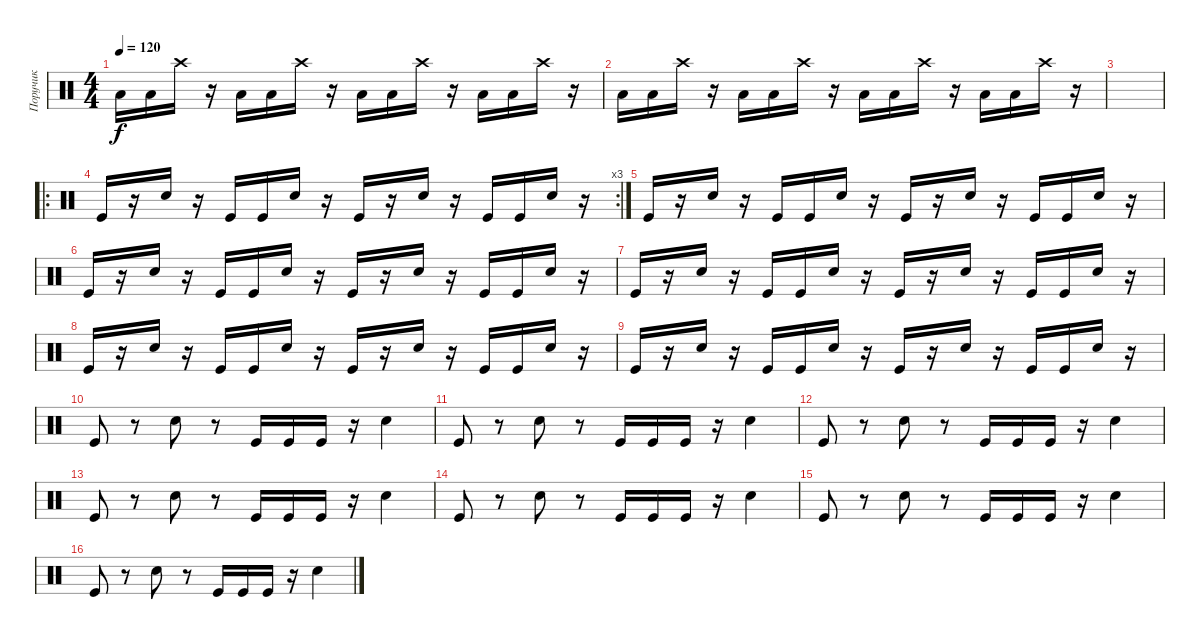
\track ("Поручик" "Поручик") {instrument percussion}
\staff {score}
\articulation defaults
\ts (4 4)
\tempo 120
\clef neutral
\ks c "Low Tom (hit)".16{dy f} "Low Tom (hit)".16 "Crash high (hit)".16
r.16 "Low Tom (hit)".16 "Low Tom (hit)".16 "Crash high (hit)".16 r.16 "Low Tom (hit)".16 "Low Tom (hit)".16 "Crash high (hit)".16 r.16 "Low Tom (hit)".16 "Low Tom (hit)".16 "Crash high (hit)".16 r.16 |
"Low Tom (hit)".16 "Low Tom (hit)".16 "Crash high (hit)".16 r.16 "Low Tom (hit)".16 "Low Tom (hit)".16 "Crash high (hit)".16 r.16 "Low Tom (hit)".16 "Low Tom (hit)".16 "Crash high (hit)".16 r.16 "Low Tom (hit)".16 "Low Tom (hit)".16 "Crash high (hit)".16 r.16 |
|
\ro
\rc 3 "Kick (hit)".16
r.16 "Snare (hit) 2".16 r.16 "Kick (hit)".16 "Kick (hit)".16 "Snare (hit) 2".16 r.16 "Kick (hit)".16 r.16 "Snare (hit) 2".16 r.16 "Kick (hit)".16 "Kick (hit)".16 "Snare (hit) 2".16 r.16 |
"Kick (hit)".16 r.16 "Snare (hit) 2".16 r.16 "Kick (hit)".16 "Kick (hit)".16 "Snare (hit) 2".16 r.16 "Kick (hit)".16 r.16 "Snare (hit) 2".16 r.16 "Kick (hit)".16 "Kick (hit)".16 "Snare (hit) 2".16 r.16 |
"Kick (hit)".16 r.16 "Snare (hit) 2".16 r.16 "Kick (hit)".16 "Kick (hit)".16 "Snare (hit) 2".16 r.16 "Kick (hit)".16 r.16 "Snare (hit) 2".16 r.16 "Kick (hit)".16 "Kick (hit)".16 "Snare (hit) 2".16 r.16 |
"Kick (hit)".16 r.16 "Snare (hit) 2".16 r.16 "Kick (hit)".16 "Kick (hit)".16 "Snare (hit) 2".16 r.16 "Kick (hit)".16 r.16 "Snare (hit) 2".16 r.16 "Kick (hit)".16 "Kick (hit)".16 "Snare (hit) 2".16 r.16 |
"Kick (hit)".16 r.16 "Snare (hit) 2".16 r.16 "Kick (hit)".16 "Kick (hit)".16 "Snare (hit) 2".16 r.16 "Kick (hit)".16 r.16 "Snare (hit) 2".16 r.16 "Kick (hit)".16 "Kick (hit)".16 "Snare (hit) 2".16 r.16 |
"Kick (hit)".16 r.16 "Snare (hit) 2".16 r.16 "Kick (hit)".16 "Kick (hit)".16 "Snare (hit) 2".16 r.16 "Kick (hit)".16 r.16 "Snare (hit) 2".16 r.16 "Kick (hit)".16 "Kick (hit)".16 "Snare (hit) 2".16 r.16 |
"Kick (hit)".8 r.8 "Snare (hit) 2".8 r.8 "Kick (hit)".16 "Kick (hit)".16 "Kick (hit)".16 r.16 "Snare (hit) 2".4 |
"Kick (hit)".8 r.8 "Snare (hit) 2".8 r.8 "Kick (hit)".16 "Kick (hit)".16 "Kick (hit)".16 r.16 "Snare (hit) 2".4 |
"Kick (hit)".8 r.8 "Snare (hit) 2".8 r.8 "Kick (hit)".16 "Kick (hit)".16 "Kick (hit)".16 r.16 "Snare (hit) 2".4 |
"Kick (hit)".8 r.8 "Snare (hit) 2".8 r.8 "Kick (hit)".16 "Kick (hit)".16 "Kick (hit)".16 r.16 "Snare (hit) 2".4 |
"Kick (hit)".8 r.8 "Snare (hit) 2".8 r.8 "Kick (hit)".16 "Kick (hit)".16 "Kick (hit)".16 r.16 "Snare (hit) 2".4 |
"Kick (hit)".8 r.8 "Snare (hit) 2".8 r.8 "Kick (hit)".16 "Kick (hit)".16 "Kick (hit)".16 r.16 "Snare (hit) 2".4 |
"Kick (hit)".8 r.8 "Snare (hit) 2".8 r.8 "Kick (hit)".16 "Kick (hit)".16 "Kick (hit)".16 r.16 "Snare (hit) 2".4
